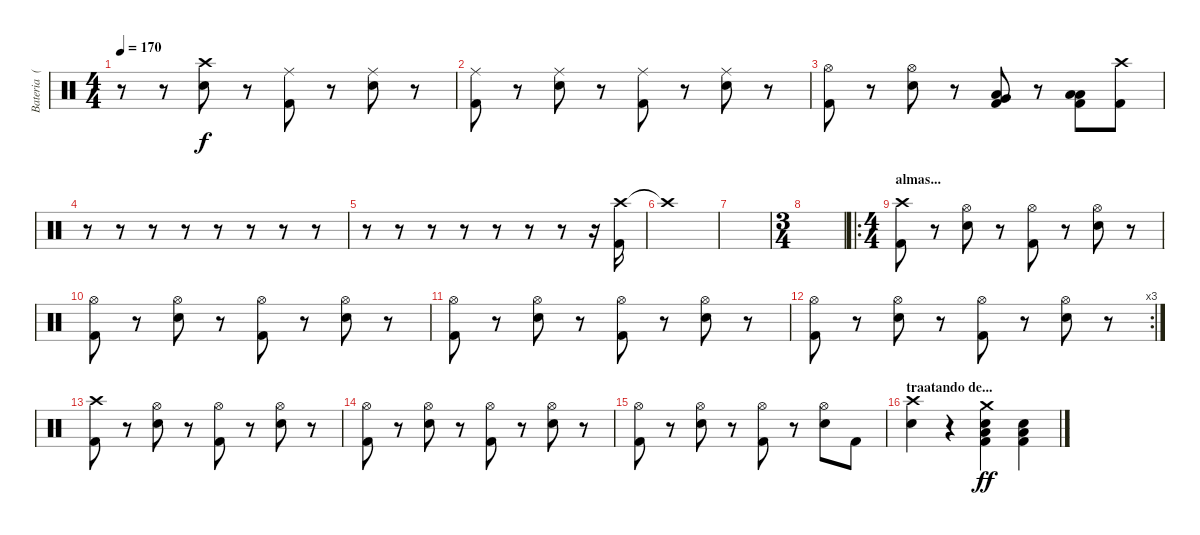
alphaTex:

\track ("Bateria  (Araujo)" "Bateria  (") {instrument percussion}
\staff {score}
\articulation defaults
\ts (4 4)
\tempo 170
\clef neutral
\ks c
r.8{dy f} r.8 ("Crash high (hit)" "Snare (hit) 2").8 r.8 ("Ride (middle)" "Kick (hit) 2").8 r.8 ("Ride (middle)" "Snare (hit) 2").8 r.8 |
("Ride (middle)" "Kick (hit) 2").8 r.8 ("Ride (middle)" "Snare (hit) 2").8 r.8 ("Ride (middle)" "Kick (hit) 2").8 r.8 ("Ride (middle)" "Snare (hit) 2").8 r.8 |
("Hi-Hat (open)" "Kick (hit) 2").8 r.8 ("Hi-Hat (open)" "Snare (hit) 2").8 r.8 ("Low Floor Tom (hit)" "Very Low Tom (hit)" "Kick (hit) 2").8 r.8 ("Low Floor Tom (hit)" "Low Floor Tom (hit)" "Kick (hit) 2").8 ("Crash high (hit)" "Kick (hit) 2").8 |
r.8 r.8 r.8 r.8 r.8 r.8 r.8 r.8 |
r.8 r.8 r.8 r.8 r.8 r.8 r.8 r.16 ("Crash high (hit)" "Kick (hit) 2").16 |
"Crash high (hit)"{t}.1 |
|
\ts (3 4)
|
\ro
\ts (4 4)
\section ("" "almas...")
("Crash high (hit)" "Kick (hit) 2").8 r.8 ("Hi-Hat (open)" "Snare (hit) 2").8 r.8 ("Hi-Hat (open)" "Kick (hit) 2").8 r.8 ("Hi-Hat (open)" "Snare (hit) 2").8 r.8 |
("Hi-Hat (open)" "Kick (hit) 2").8 r.8 ("Hi-Hat (open)" "Snare (hit) 2").8 r.8 ("Hi-Hat (open)" "Kick (hit) 2").8 r.8 ("Hi-Hat (open)" "Snare (hit) 2").8 r.8 |
("Hi-Hat (open)" "Kick (hit) 2").8 r.8 ("Hi-Hat (open)" "Snare (hit) 2").8 r.8 ("Hi-Hat (open)" "Kick (hit) 2").8 r.8 ("Hi-Hat (open)" "Snare (hit) 2").8 r.8 |
\rc 3
("Hi-Hat (open)" "Kick (hit) 2").8 r.8 ("Hi-Hat (open)" "Snare (hit) 2").8 r.8 ("Hi-Hat (open)" "Kick (hit) 2").8 r.8 ("Hi-Hat (open)" "Snare (hit) 2").8 r.8 |
("Crash high (hit)" "Kick (hit) 2").8 r.8 ("Hi-Hat (open)" "Snare (hit) 2").8 r.8 ("Hi-Hat (open)" "Kick (hit) 2").8 r.8 ("Hi-Hat (open)" "Snare (hit) 2").8 r.8 |
("Hi-Hat (open)" "Kick (hit) 2").8 r.8 ("Hi-Hat (open)" "Snare (hit) 2").8 r.8 ("Hi-Hat (open)" "Kick (hit) 2").8 r.8 ("Hi-Hat (open)" "Snare (hit) 2").8 r.8 |
("Hi-Hat (open)" "Kick (hit) 2").8 r.8 ("Hi-Hat (open)" "Snare (hit) 2").8 r.8 ("Hi-Hat (open)" "Kick (hit) 2").8 r.8 ("Hi-Hat (open)" "Snare (hit) 2").8 "Kick (hit) 2".8 |
\section ("" "traatando de...")
("Crash high (hit)" "Snare (hit) 2").4 r.4 ("Crash medium (hit)" "Low Tom (hit)" "Snare (hit) 2" "Kick (hit) 2").4{dy ff} ("Snare (hit) 2" "Low Floor Tom (hit)" "Kick (hit) 2").4
